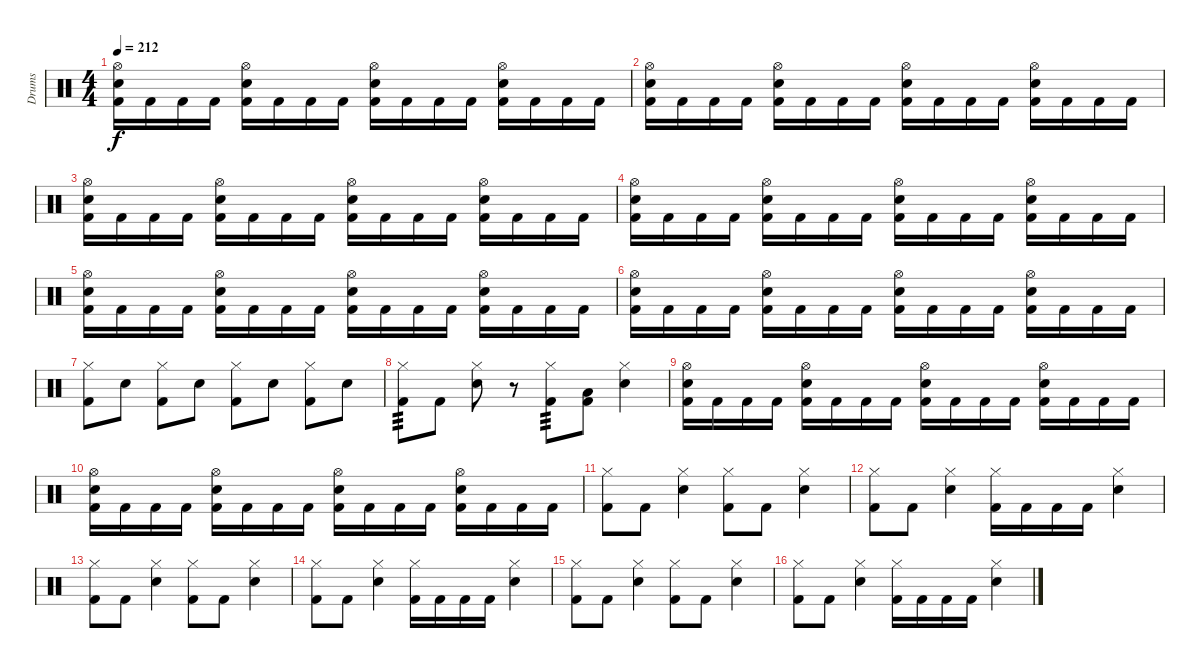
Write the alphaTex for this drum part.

\track ("Drums" "Drums") {instrument percussion}
\staff {score}
\articulation defaults
\ts (4 4)
\tempo 212
\clef neutral
\ks c
("Hi-Hat (open)" "Snare (hit) 2" "Kick (hit) 2").16{dy f} "Kick (hit) 2".16 "Kick (hit) 2".16 "Kick (hit) 2".16 ("Hi-Hat (open)" "Snare (hit) 2" "Kick (hit) 2").16 "Kick (hit) 2".16 "Kick (hit) 2".16 "Kick (hit) 2".16 ("Hi-Hat (open)" "Snare (hit) 2" "Kick (hit) 2").16 "Kick (hit) 2".16 "Kick (hit) 2".16 "Kick (hit) 2".16 ("Hi-Hat (open)" "Snare (hit) 2" "Kick (hit) 2").16 "Kick (hit) 2".16 "Kick (hit) 2".16 "Kick (hit) 2".16 |
("Hi-Hat (open)" "Snare (hit) 2" "Kick (hit) 2").16 "Kick (hit) 2".16 "Kick (hit) 2".16 "Kick (hit) 2".16 ("Hi-Hat (open)" "Snare (hit) 2" "Kick (hit) 2").16 "Kick (hit) 2".16 "Kick (hit) 2".16 "Kick (hit) 2".16 ("Hi-Hat (open)" "Snare (hit) 2" "Kick (hit) 2").16 "Kick (hit) 2".16 "Kick (hit) 2".16 "Kick (hit) 2".16 ("Hi-Hat (open)" "Snare (hit) 2" "Kick (hit) 2").16 "Kick (hit) 2".16 "Kick (hit) 2".16 "Kick (hit) 2".16 |
("Hi-Hat (open)" "Snare (hit) 2" "Kick (hit) 2").16 "Kick (hit) 2".16 "Kick (hit) 2".16 "Kick (hit) 2".16 ("Hi-Hat (open)" "Snare (hit) 2" "Kick (hit) 2").16 "Kick (hit) 2".16 "Kick (hit) 2".16 "Kick (hit) 2".16 ("Hi-Hat (open)" "Snare (hit) 2" "Kick (hit) 2").16 "Kick (hit) 2".16 "Kick (hit) 2".16 "Kick (hit) 2".16 ("Hi-Hat (open)" "Snare (hit) 2" "Kick (hit) 2").16 "Kick (hit) 2".16 "Kick (hit) 2".16 "Kick (hit) 2".16 |
("Hi-Hat (open)" "Snare (hit) 2" "Kick (hit) 2").16 "Kick (hit) 2".16 "Kick (hit) 2".16 "Kick (hit) 2".16 ("Hi-Hat (open)" "Snare (hit) 2" "Kick (hit) 2").16 "Kick (hit) 2".16 "Kick (hit) 2".16 "Kick (hit) 2".16 ("Hi-Hat (open)" "Snare (hit) 2" "Kick (hit) 2").16 "Kick (hit) 2".16 "Kick (hit) 2".16 "Kick (hit) 2".16 ("Hi-Hat (open)" "Snare (hit) 2" "Kick (hit) 2").16 "Kick (hit) 2".16 "Kick (hit) 2".16 "Kick (hit) 2".16 |
("Hi-Hat (open)" "Snare (hit) 2" "Kick (hit) 2").16 "Kick (hit) 2".16 "Kick (hit) 2".16 "Kick (hit) 2".16 ("Hi-Hat (open)" "Snare (hit) 2" "Kick (hit) 2").16 "Kick (hit) 2".16 "Kick (hit) 2".16 "Kick (hit) 2".16 ("Hi-Hat (open)" "Snare (hit) 2" "Kick (hit) 2").16 "Kick (hit) 2".16 "Kick (hit) 2".16 "Kick (hit) 2".16 ("Hi-Hat (open)" "Snare (hit) 2" "Kick (hit) 2").16 "Kick (hit) 2".16 "Kick (hit) 2".16 "Kick (hit) 2".16 |
("Hi-Hat (open)" "Snare (hit) 2" "Kick (hit) 2").16 "Kick (hit) 2".16 "Kick (hit) 2".16 "Kick (hit) 2".16 ("Hi-Hat (open)" "Snare (hit) 2" "Kick (hit) 2").16 "Kick (hit) 2".16 "Kick (hit) 2".16 "Kick (hit) 2".16 ("Hi-Hat (open)" "Snare (hit) 2" "Kick (hit) 2").16 "Kick (hit) 2".16 "Kick (hit) 2".16 "Kick (hit) 2".16 ("Hi-Hat (open)" "Snare (hit) 2" "Kick (hit) 2").16 "Kick (hit) 2".16 "Kick (hit) 2".16 "Kick (hit) 2".16 |
("Hi-Hat (closed)" "Kick (hit) 2").8 "Snare (hit) 2".8 ("Hi-Hat (closed)" "Kick (hit) 2").8 "Snare (hit) 2".8 ("Hi-Hat (closed)" "Kick (hit) 2").8 "Snare (hit) 2".8 ("Hi-Hat (closed)" "Kick (hit) 2").8 "Snare (hit) 2".8 |
("Hi-Hat (closed)" "Kick (hit) 2").8{tp 3} "Kick (hit) 2".8 ("Hi-Hat (closed)" "Snare (hit) 2").8 r.8 ("Hi-Hat (closed)" "Kick (hit) 2").8{tp 3} ("Low Tom (hit)" "Kick (hit) 2").8 ("Hi-Hat (closed)" "Snare (hit) 2").4 |
("Hi-Hat (open)" "Snare (hit) 2" "Kick (hit) 2").16 "Kick (hit) 2".16 "Kick (hit) 2".16 "Kick (hit) 2".16 ("Hi-Hat (open)" "Snare (hit) 2" "Kick (hit) 2").16 "Kick (hit) 2".16 "Kick (hit) 2".16 "Kick (hit) 2".16 ("Hi-Hat (open)" "Snare (hit) 2" "Kick (hit) 2").16 "Kick (hit) 2".16 "Kick (hit) 2".16 "Kick (hit) 2".16 ("Hi-Hat (open)" "Snare (hit) 2" "Kick (hit) 2").16 "Kick (hit) 2".16 "Kick (hit) 2".16 "Kick (hit) 2".16 |
("Hi-Hat (open)" "Snare (hit) 2" "Kick (hit) 2").16 "Kick (hit) 2".16 "Kick (hit) 2".16 "Kick (hit) 2".16 ("Hi-Hat (open)" "Snare (hit) 2" "Kick (hit) 2").16 "Kick (hit) 2".16 "Kick (hit) 2".16 "Kick (hit) 2".16 ("Hi-Hat (open)" "Snare (hit) 2" "Kick (hit) 2").16 "Kick (hit) 2".16 "Kick (hit) 2".16 "Kick (hit) 2".16 ("Hi-Hat (open)" "Snare (hit) 2" "Kick (hit) 2").16 "Kick (hit) 2".16 "Kick (hit) 2".16 "Kick (hit) 2".16 |
("Hi-Hat (closed)" "Kick (hit) 2").8 "Kick (hit) 2".8 ("Hi-Hat (closed)" "Snare (hit) 2").4 ("Hi-Hat (closed)" "Kick (hit) 2").8 "Kick (hit) 2".8 ("Hi-Hat (closed)" "Snare (hit) 2").4 |
("Hi-Hat (closed)" "Kick (hit) 2").8 "Kick (hit) 2".8 ("Hi-Hat (closed)" "Snare (hit) 2").4 ("Hi-Hat (closed)" "Kick (hit) 2").16 "Kick (hit) 2".16 "Kick (hit) 2".16 "Kick (hit) 2".16 ("Hi-Hat (closed)" "Snare (hit) 2").4 |
("Hi-Hat (closed)" "Kick (hit) 2").8 "Kick (hit) 2".8 ("Hi-Hat (closed)" "Snare (hit) 2").4 ("Hi-Hat (closed)" "Kick (hit) 2").8 "Kick (hit) 2".8 ("Hi-Hat (closed)" "Snare (hit) 2").4 |
("Hi-Hat (closed)" "Kick (hit) 2").8 "Kick (hit) 2".8 ("Hi-Hat (closed)" "Snare (hit) 2").4 ("Hi-Hat (closed)" "Kick (hit) 2").16 "Kick (hit) 2".16 "Kick (hit) 2".16 "Kick (hit) 2".16 ("Hi-Hat (closed)" "Snare (hit) 2").4 |
("Hi-Hat (closed)" "Kick (hit) 2").8 "Kick (hit) 2".8 ("Hi-Hat (closed)" "Snare (hit) 2").4 ("Hi-Hat (closed)" "Kick (hit) 2").8 "Kick (hit) 2".8 ("Hi-Hat (closed)" "Snare (hit) 2").4 |
("Hi-Hat (closed)" "Kick (hit) 2").8 "Kick (hit) 2".8 ("Hi-Hat (closed)" "Snare (hit) 2").4 ("Hi-Hat (closed)" "Kick (hit) 2").16 "Kick (hit) 2".16 "Kick (hit) 2".16 "Kick (hit) 2".16 ("Hi-Hat (closed)" "Snare (hit) 2").4
